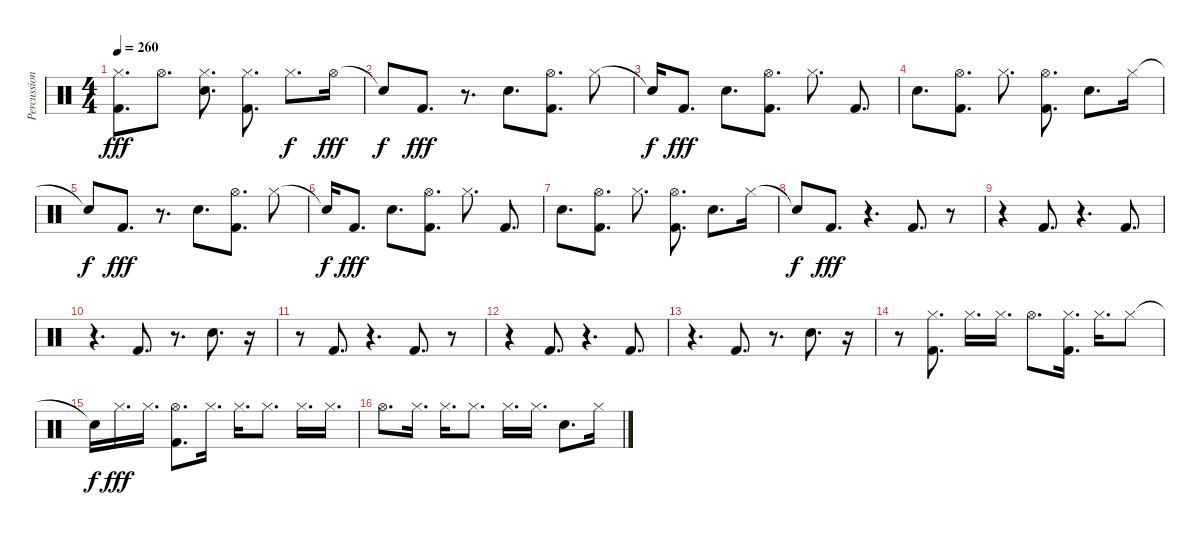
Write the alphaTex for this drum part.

\track ("Percussion" "Percussion") {instrument percussion}
\staff {score}
\articulation defaults
\ts (4 4)
\tempo 260
\clef neutral
\ks c
("Hi-Hat (closed)" "Kick (hit) 2").8{d dy fff} "Hi-Hat (open)".8{d} ("Hi-Hat (closed)" "Electric Snare (hit)").8{d} ("Hi-Hat (closed)" "Kick (hit) 2").8{d} "Hi-Hat (closed)".8{d dy f} "Hi-Hat (open)".16{dy fff} |
"Snare (hit)"{t}.8{dy f} "Kick (hit) 2".8{d dy fff} r.8{d} "Electric Snare (hit)".8{d} ("Kick (hit) 2" "Hi-Hat (open)").8{d} "Hi-Hat (closed)".8 |
"Snare (hit)"{t}.16{dy f} "Kick (hit) 2".8{d dy fff} "Electric Snare (hit)".8{d} ("Kick (hit) 2" "Hi-Hat (open)").8{d} "Hi-Hat (closed)".8{d} "Kick (hit) 2".8{d} |
"Electric Snare (hit)".8{d} ("Kick (hit) 2" "Hi-Hat (open)").8{d} "Hi-Hat (closed)".8{d} ("Hi-Hat (open)" "Kick (hit) 2").8{d} "Electric Snare (hit)".8{d} "Hi-Hat (closed)".16 |
"Snare (hit)"{t}.8{dy f} "Kick (hit) 2".8{d dy fff} r.8{d} "Electric Snare (hit)".8{d} ("Kick (hit) 2" "Hi-Hat (open)").8{d} "Hi-Hat (closed)".8 |
"Snare (hit)"{t}.16{dy f} "Kick (hit) 2".8{d dy fff} "Electric Snare (hit)".8{d} ("Kick (hit) 2" "Hi-Hat (open)").8{d} "Hi-Hat (closed)".8{d} "Kick (hit) 2".8{d} |
"Electric Snare (hit)".8{d} ("Kick (hit) 2" "Hi-Hat (open)").8{d} "Hi-Hat (closed)".8{d} ("Hi-Hat (open)" "Kick (hit) 2").8{d} "Electric Snare (hit)".8{d} "Hi-Hat (closed)".16 |
"Snare (hit)"{t}.8{dy f} "Kick (hit) 2".8{d dy fff} r.4{d} "Kick (hit) 2".8{d} r.8 |
r.4 "Kick (hit) 2".8{d} r.4{d} "Kick (hit) 2".8{d} |
r.4{d} "Kick (hit) 2".8{d} r.8{d} "Electric Snare (hit)".8{d} r.16 |
r.8 "Kick (hit) 2".8{d} r.4{d} "Kick (hit) 2".8{d} r.8 |
r.4 "Kick (hit) 2".8{d} r.4{d} "Kick (hit) 2".8{d} |
r.4{d} "Kick (hit) 2".8{d} r.8{d} "Electric Snare (hit)".8{d} r.16 |
r.8 ("Hi-Hat (closed)" "Kick (hit) 2").8{d} "Hi-Hat (closed)".16{d} "Hi-Hat (closed)".16{d} "Hi-Hat (open)".8{d} ("Hi-Hat (closed)" "Kick (hit) 2").16{d} "Hi-Hat (closed)".16{d} "Hi-Hat (closed)".8 |
"Snare (hit)"{t}.16{dy f} "Hi-Hat (closed)".16{d dy fff} "Hi-Hat (closed)".16{d} ("Hi-Hat (open)" "Kick (hit) 2").8{d} "Hi-Hat (closed)".16{d} "Hi-Hat (closed)".16{d} "Hi-Hat (closed)".8{d} "Hi-Hat (closed)".16{d} "Hi-Hat (closed)".16{d} |
"Hi-Hat (open)".8{d} "Hi-Hat (closed)".16{d} "Hi-Hat (closed)".16{d} "Hi-Hat (closed)".8{d} "Hi-Hat (closed)".16{d} "Hi-Hat (closed)".16{d} "Electric Snare (hit)".8{d} "Hi-Hat (closed)".16
